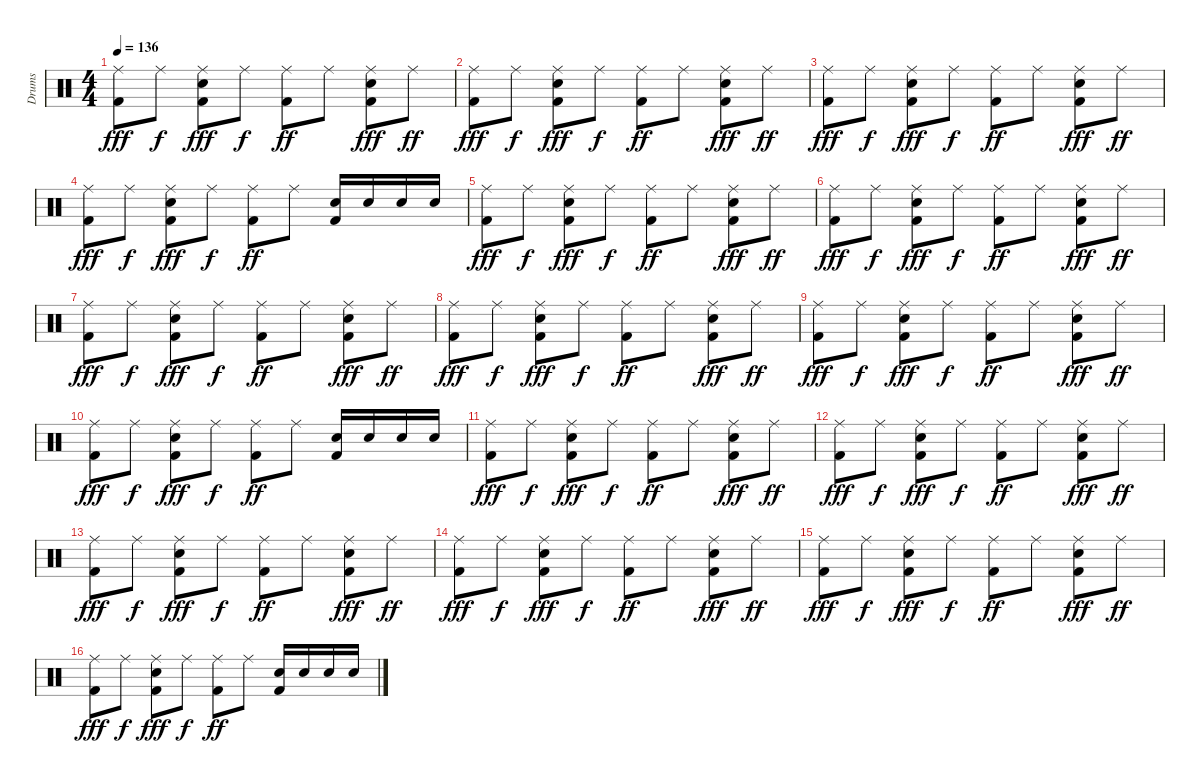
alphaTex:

\track ("Drums" "Drums") {instrument percussion}
\staff {score}
\articulation defaults
\ts (4 4)
\tempo 136
\clef neutral
\ks c
("Kick (hit) 2" "Ride (middle)").8{dy fff} "Ride (middle)".8{dy f} ("Kick (hit) 2" "Electric Snare (hit)" "Ride (middle)").8{dy fff} "Ride (middle)".8{dy f} ("Kick (hit) 2" "Ride (middle)").8{dy ff} "Ride (middle)".8 ("Kick (hit) 2" "Electric Snare (hit)" "Ride (middle)").8{dy fff} "Ride (middle)".8{dy ff} |
("Kick (hit) 2" "Ride (middle)").8{dy fff} "Ride (middle)".8{dy f} ("Kick (hit) 2" "Electric Snare (hit)" "Ride (middle)").8{dy fff} "Ride (middle)".8{dy f} ("Kick (hit) 2" "Ride (middle)").8{dy ff} "Ride (middle)".8 ("Kick (hit) 2" "Electric Snare (hit)" "Ride (middle)").8{dy fff} "Ride (middle)".8{dy ff} |
("Kick (hit) 2" "Ride (middle)").8{dy fff} "Ride (middle)".8{dy f} ("Kick (hit) 2" "Electric Snare (hit)" "Ride (middle)").8{dy fff} "Ride (middle)".8{dy f} ("Kick (hit) 2" "Ride (middle)").8{dy ff} "Ride (middle)".8 ("Kick (hit) 2" "Electric Snare (hit)" "Ride (middle)").8{dy fff} "Ride (middle)".8{dy ff} |
("Kick (hit) 2" "Ride (middle)").8{dy fff} "Ride (middle)".8{dy f} ("Kick (hit) 2" "Electric Snare (hit)" "Ride (middle)").8{dy fff} "Ride (middle)".8{dy f} ("Kick (hit) 2" "Ride (middle)").8{dy ff} "Ride (middle)".8 ("Kick (hit) 2" "Electric Snare (hit)").16 "Electric Snare (hit)".16 "Electric Snare (hit)".16 "Electric Snare (hit)".16 |
("Kick (hit) 2" "Ride (middle)").8{dy fff} "Ride (middle)".8{dy f} ("Kick (hit) 2" "Electric Snare (hit)" "Ride (middle)").8{dy fff} "Ride (middle)".8{dy f} ("Kick (hit) 2" "Ride (middle)").8{dy ff} "Ride (middle)".8 ("Kick (hit) 2" "Electric Snare (hit)" "Ride (middle)").8{dy fff} "Ride (middle)".8{dy ff} |
("Kick (hit) 2" "Ride (middle)").8{dy fff} "Ride (middle)".8{dy f} ("Kick (hit) 2" "Electric Snare (hit)" "Ride (middle)").8{dy fff} "Ride (middle)".8{dy f} ("Kick (hit) 2" "Ride (middle)").8{dy ff} "Ride (middle)".8 ("Kick (hit) 2" "Electric Snare (hit)" "Ride (middle)").8{dy fff} "Ride (middle)".8{dy ff} |
("Kick (hit) 2" "Ride (middle)").8{dy fff} "Ride (middle)".8{dy f} ("Kick (hit) 2" "Electric Snare (hit)" "Ride (middle)").8{dy fff} "Ride (middle)".8{dy f} ("Kick (hit) 2" "Ride (middle)").8{dy ff} "Ride (middle)".8 ("Kick (hit) 2" "Electric Snare (hit)" "Ride (middle)").8{dy fff} "Ride (middle)".8{dy ff} |
("Kick (hit) 2" "Ride (middle)").8{dy fff} "Ride (middle)".8{dy f} ("Kick (hit) 2" "Electric Snare (hit)" "Ride (middle)").8{dy fff} "Ride (middle)".8{dy f} ("Kick (hit) 2" "Ride (middle)").8{dy ff} "Ride (middle)".8 ("Kick (hit) 2" "Electric Snare (hit)" "Ride (middle)").8{dy fff} "Ride (middle)".8{dy ff} |
("Kick (hit) 2" "Ride (middle)").8{dy fff} "Ride (middle)".8{dy f} ("Kick (hit) 2" "Electric Snare (hit)" "Ride (middle)").8{dy fff} "Ride (middle)".8{dy f} ("Kick (hit) 2" "Ride (middle)").8{dy ff} "Ride (middle)".8 ("Kick (hit) 2" "Electric Snare (hit)" "Ride (middle)").8{dy fff} "Ride (middle)".8{dy ff} |
("Kick (hit) 2" "Ride (middle)").8{dy fff} "Ride (middle)".8{dy f} ("Kick (hit) 2" "Electric Snare (hit)" "Ride (middle)").8{dy fff} "Ride (middle)".8{dy f} ("Kick (hit) 2" "Ride (middle)").8{dy ff} "Ride (middle)".8 ("Kick (hit) 2" "Electric Snare (hit)").16 "Electric Snare (hit)".16 "Electric Snare (hit)".16 "Electric Snare (hit)".16 |
("Kick (hit) 2" "Ride (middle)").8{dy fff} "Ride (middle)".8{dy f} ("Kick (hit) 2" "Electric Snare (hit)" "Ride (middle)").8{dy fff} "Ride (middle)".8{dy f} ("Kick (hit) 2" "Ride (middle)").8{dy ff} "Ride (middle)".8 ("Kick (hit) 2" "Electric Snare (hit)" "Ride (middle)").8{dy fff} "Ride (middle)".8{dy ff} |
("Kick (hit) 2" "Ride (middle)").8{dy fff} "Ride (middle)".8{dy f} ("Kick (hit) 2" "Electric Snare (hit)" "Ride (middle)").8{dy fff} "Ride (middle)".8{dy f} ("Kick (hit) 2" "Ride (middle)").8{dy ff} "Ride (middle)".8 ("Kick (hit) 2" "Electric Snare (hit)" "Ride (middle)").8{dy fff} "Ride (middle)".8{dy ff} |
("Kick (hit) 2" "Ride (middle)").8{dy fff} "Ride (middle)".8{dy f} ("Kick (hit) 2" "Electric Snare (hit)" "Ride (middle)").8{dy fff} "Ride (middle)".8{dy f} ("Kick (hit) 2" "Ride (middle)").8{dy ff} "Ride (middle)".8 ("Kick (hit) 2" "Electric Snare (hit)" "Ride (middle)").8{dy fff} "Ride (middle)".8{dy ff} |
("Kick (hit) 2" "Ride (middle)").8{dy fff} "Ride (middle)".8{dy f} ("Kick (hit) 2" "Electric Snare (hit)" "Ride (middle)").8{dy fff} "Ride (middle)".8{dy f} ("Kick (hit) 2" "Ride (middle)").8{dy ff} "Ride (middle)".8 ("Kick (hit) 2" "Electric Snare (hit)" "Ride (middle)").8{dy fff} "Ride (middle)".8{dy ff} |
("Kick (hit) 2" "Ride (middle)").8{dy fff} "Ride (middle)".8{dy f} ("Kick (hit) 2" "Electric Snare (hit)" "Ride (middle)").8{dy fff} "Ride (middle)".8{dy f} ("Kick (hit) 2" "Ride (middle)").8{dy ff} "Ride (middle)".8 ("Kick (hit) 2" "Electric Snare (hit)" "Ride (middle)").8{dy fff} "Ride (middle)".8{dy ff} |
("Kick (hit) 2" "Ride (middle)").8{dy fff} "Ride (middle)".8{dy f} ("Kick (hit) 2" "Electric Snare (hit)" "Ride (middle)").8{dy fff} "Ride (middle)".8{dy f} ("Kick (hit) 2" "Ride (middle)").8{dy ff} "Ride (middle)".8 ("Kick (hit) 2" "Electric Snare (hit)").16 "Electric Snare (hit)".16 "Electric Snare (hit)".16 "Electric Snare (hit)".16
